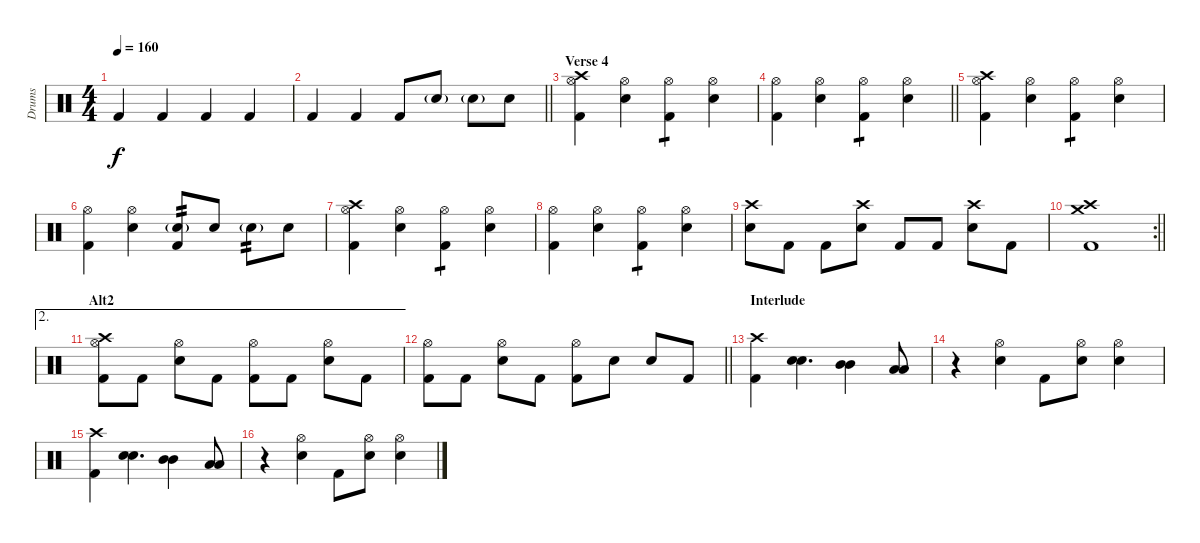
\track ("Drums" "Drums") {instrument percussion}
\staff {score}
\articulation defaults
\ts (4 4)
\tempo 160
\clef neutral
\ks c "Kick (hit) 2".4{dy f} "Kick (hit) 2".4 "Kick (hit) 2".4 "Kick (hit) 2".4
|
\barLineRight lightlight "Kick (hit) 2".4 "Kick (hit) 2".4 "Kick (hit) 2".8 "Electric Snare (hit)"{g}.8 "Electric Snare (hit)"{g}.8 "Electric Snare (hit)".8
|
\section ("" "Verse 4")
("Crash high (hit)" "Hi-Hat (open)" "Kick (hit) 2").4 ("Electric Snare (hit)" "Hi-Hat (open)").4 ("Hi-Hat (open)" "Kick (hit) 2").4{tp 1} ("Electric Snare (hit)" "Hi-Hat (open)").4 |
\barLineRight lightlight
("Hi-Hat (open)" "Kick (hit) 2").4 ("Electric Snare (hit)" "Hi-Hat (open)").4 ("Hi-Hat (open)" "Kick (hit) 2").4{tp 1} ("Electric Snare (hit)" "Hi-Hat (open)").4 |
("Crash high (hit)" "Hi-Hat (open)" "Kick (hit) 2").4 ("Electric Snare (hit)" "Hi-Hat (open)").4 ("Hi-Hat (open)" "Kick (hit) 2").4{tp 1} ("Electric Snare (hit)" "Hi-Hat (open)").4 |
("Hi-Hat (open)" "Kick (hit) 2").4 ("Electric Snare (hit)" "Hi-Hat (open)").4 ("Electric Snare (hit)"{g} "Kick (hit) 2").8{tp 2} "Electric Snare (hit)".8 "Electric Snare (hit)"{g}.8{tp 2} "Electric Snare (hit)".8 |
("Crash high (hit)" "Hi-Hat (open)" "Kick (hit) 2").4 ("Electric Snare (hit)" "Hi-Hat (open)").4 ("Hi-Hat (open)" "Kick (hit) 2").4{tp 1} ("Electric Snare (hit)" "Hi-Hat (open)").4 |
("Hi-Hat (open)" "Kick (hit) 2").4 ("Electric Snare (hit)" "Hi-Hat (open)").4 ("Hi-Hat (open)" "Kick (hit) 2").4{tp 1} ("Electric Snare (hit)" "Hi-Hat (open)").4 |
("Crash high (hit)" "Electric Snare (hit)").8 "Kick (hit) 2".8 "Kick (hit) 2".8 ("Crash high (hit)" "Electric Snare (hit)").8 "Kick (hit) 2".8 "Kick (hit) 2".8 ("Crash high (hit)" "Electric Snare (hit)").8 "Kick (hit) 2".8 |
\rc 2
\barLineRight lightlight
("Crash high (hit)" "Crash medium (hit)" "Kick (hit) 2").1 |
\ae 2
\section ("" "Alt2")
("Crash high (hit)" "Hi-Hat (open)" "Kick (hit) 2").8 "Kick (hit) 2".8 ("Hi-Hat (open)" "Electric Snare (hit)").8 "Kick (hit) 2".8 ("Hi-Hat (open)" "Kick (hit) 2").8 "Kick (hit) 2".8 ("Hi-Hat (open)" "Electric Snare (hit)").8 "Kick (hit) 2".8 |
\barLineRight lightlight
("Hi-Hat (open)" "Kick (hit) 2").8 "Kick (hit) 2".8 ("Hi-Hat (open)" "Electric Snare (hit)").8 "Kick (hit) 2".8 ("Hi-Hat (open)" "Kick (hit) 2").8 "Electric Snare (hit)".8 "Electric Snare (hit)".8 "Kick (hit) 2".8 |
\section ("" "Interlude")
("Crash high (hit)" "Kick (hit) 2").4 ("Electric Snare (hit)" "Electric Snare (hit)").4{d bu 240} ("Mid Tom (hit)" "Mid Tom (hit)").4{bu 480} ("Low Tom (hit)" "Low Tom (hit)").8{bu 480} |
r.4 ("Hi-Hat (open)" "Electric Snare (hit)").4 "Kick (hit) 2".8 ("Hi-Hat (open)" "Electric Snare (hit)").8 ("Hi-Hat (open)" "Electric Snare (hit)").4 |
("Crash high (hit)" "Kick (hit) 2").4 ("Electric Snare (hit)" "Electric Snare (hit)").4{d bu 240} ("Mid Tom (hit)" "Mid Tom (hit)").4{bu 480} ("Low Tom (hit)" "Low Tom (hit)").8{bu 480} |
r.4 ("Hi-Hat (open)" "Electric Snare (hit)").4 "Kick (hit) 2".8 ("Hi-Hat (open)" "Electric Snare (hit)").8 ("Hi-Hat (open)" "Electric Snare (hit)").4
